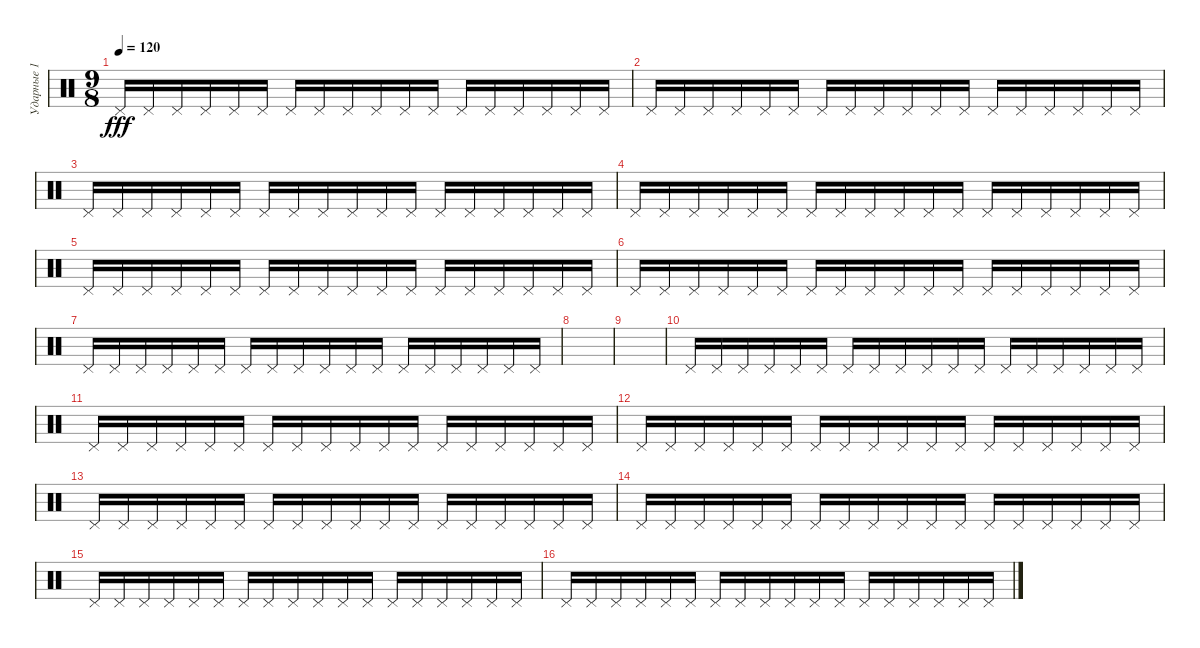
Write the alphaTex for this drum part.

\track ("Ударные 1" "Ударные 1") {instrument percussion}
\staff {score}
\articulation defaults
\ts (9 8)
\tempo 120
\clef neutral
\ks c "Pedal Hi-Hat (hit)".16{dy fff} "Pedal Hi-Hat (hit)".16 "Pedal Hi-Hat (hit)".16 "Pedal Hi-Hat (hit)".16 "Pedal Hi-Hat (hit)".16 "Pedal Hi-Hat (hit)".16 "Pedal Hi-Hat (hit)".16 "Pedal Hi-Hat (hit)".16 "Pedal Hi-Hat (hit)".16 "Pedal Hi-Hat (hit)".16 "Pedal Hi-Hat (hit)".16 "Pedal Hi-Hat (hit)".16 "Pedal Hi-Hat (hit)".16 "Pedal Hi-Hat (hit)".16 "Pedal Hi-Hat (hit)".16 "Pedal Hi-Hat (hit)".16 "Pedal Hi-Hat (hit)".16 "Pedal Hi-Hat (hit)".16
|
"Pedal Hi-Hat (hit)".16 "Pedal Hi-Hat (hit)".16 "Pedal Hi-Hat (hit)".16 "Pedal Hi-Hat (hit)".16 "Pedal Hi-Hat (hit)".16 "Pedal Hi-Hat (hit)".16 "Pedal Hi-Hat (hit)".16 "Pedal Hi-Hat (hit)".16 "Pedal Hi-Hat (hit)".16 "Pedal Hi-Hat (hit)".16 "Pedal Hi-Hat (hit)".16 "Pedal Hi-Hat (hit)".16 "Pedal Hi-Hat (hit)".16 "Pedal Hi-Hat (hit)".16 "Pedal Hi-Hat (hit)".16 "Pedal Hi-Hat (hit)".16 "Pedal Hi-Hat (hit)".16 "Pedal Hi-Hat (hit)".16 |
"Pedal Hi-Hat (hit)".16 "Pedal Hi-Hat (hit)".16 "Pedal Hi-Hat (hit)".16 "Pedal Hi-Hat (hit)".16 "Pedal Hi-Hat (hit)".16 "Pedal Hi-Hat (hit)".16 "Pedal Hi-Hat (hit)".16 "Pedal Hi-Hat (hit)".16 "Pedal Hi-Hat (hit)".16 "Pedal Hi-Hat (hit)".16 "Pedal Hi-Hat (hit)".16 "Pedal Hi-Hat (hit)".16 "Pedal Hi-Hat (hit)".16 "Pedal Hi-Hat (hit)".16 "Pedal Hi-Hat (hit)".16 "Pedal Hi-Hat (hit)".16 "Pedal Hi-Hat (hit)".16 "Pedal Hi-Hat (hit)".16 |
"Pedal Hi-Hat (hit)".16 "Pedal Hi-Hat (hit)".16 "Pedal Hi-Hat (hit)".16 "Pedal Hi-Hat (hit)".16 "Pedal Hi-Hat (hit)".16 "Pedal Hi-Hat (hit)".16 "Pedal Hi-Hat (hit)".16 "Pedal Hi-Hat (hit)".16 "Pedal Hi-Hat (hit)".16 "Pedal Hi-Hat (hit)".16 "Pedal Hi-Hat (hit)".16 "Pedal Hi-Hat (hit)".16 "Pedal Hi-Hat (hit)".16 "Pedal Hi-Hat (hit)".16 "Pedal Hi-Hat (hit)".16 "Pedal Hi-Hat (hit)".16 "Pedal Hi-Hat (hit)".16 "Pedal Hi-Hat (hit)".16 |
"Pedal Hi-Hat (hit)".16 "Pedal Hi-Hat (hit)".16 "Pedal Hi-Hat (hit)".16 "Pedal Hi-Hat (hit)".16 "Pedal Hi-Hat (hit)".16 "Pedal Hi-Hat (hit)".16 "Pedal Hi-Hat (hit)".16 "Pedal Hi-Hat (hit)".16 "Pedal Hi-Hat (hit)".16 "Pedal Hi-Hat (hit)".16 "Pedal Hi-Hat (hit)".16 "Pedal Hi-Hat (hit)".16 "Pedal Hi-Hat (hit)".16 "Pedal Hi-Hat (hit)".16 "Pedal Hi-Hat (hit)".16 "Pedal Hi-Hat (hit)".16 "Pedal Hi-Hat (hit)".16 "Pedal Hi-Hat (hit)".16 |
"Pedal Hi-Hat (hit)".16 "Pedal Hi-Hat (hit)".16 "Pedal Hi-Hat (hit)".16 "Pedal Hi-Hat (hit)".16 "Pedal Hi-Hat (hit)".16 "Pedal Hi-Hat (hit)".16 "Pedal Hi-Hat (hit)".16 "Pedal Hi-Hat (hit)".16 "Pedal Hi-Hat (hit)".16 "Pedal Hi-Hat (hit)".16 "Pedal Hi-Hat (hit)".16 "Pedal Hi-Hat (hit)".16 "Pedal Hi-Hat (hit)".16 "Pedal Hi-Hat (hit)".16 "Pedal Hi-Hat (hit)".16 "Pedal Hi-Hat (hit)".16 "Pedal Hi-Hat (hit)".16 "Pedal Hi-Hat (hit)".16 |
"Pedal Hi-Hat (hit)".16 "Pedal Hi-Hat (hit)".16 "Pedal Hi-Hat (hit)".16 "Pedal Hi-Hat (hit)".16 "Pedal Hi-Hat (hit)".16 "Pedal Hi-Hat (hit)".16 "Pedal Hi-Hat (hit)".16 "Pedal Hi-Hat (hit)".16 "Pedal Hi-Hat (hit)".16 "Pedal Hi-Hat (hit)".16 "Pedal Hi-Hat (hit)".16 "Pedal Hi-Hat (hit)".16 "Pedal Hi-Hat (hit)".16 "Pedal Hi-Hat (hit)".16 "Pedal Hi-Hat (hit)".16 "Pedal Hi-Hat (hit)".16 "Pedal Hi-Hat (hit)".16 "Pedal Hi-Hat (hit)".16 |
|
|
"Pedal Hi-Hat (hit)".16 "Pedal Hi-Hat (hit)".16 "Pedal Hi-Hat (hit)".16 "Pedal Hi-Hat (hit)".16 "Pedal Hi-Hat (hit)".16 "Pedal Hi-Hat (hit)".16 "Pedal Hi-Hat (hit)".16 "Pedal Hi-Hat (hit)".16 "Pedal Hi-Hat (hit)".16 "Pedal Hi-Hat (hit)".16 "Pedal Hi-Hat (hit)".16 "Pedal Hi-Hat (hit)".16 "Pedal Hi-Hat (hit)".16 "Pedal Hi-Hat (hit)".16 "Pedal Hi-Hat (hit)".16 "Pedal Hi-Hat (hit)".16 "Pedal Hi-Hat (hit)".16 "Pedal Hi-Hat (hit)".16 |
"Pedal Hi-Hat (hit)".16 "Pedal Hi-Hat (hit)".16 "Pedal Hi-Hat (hit)".16 "Pedal Hi-Hat (hit)".16 "Pedal Hi-Hat (hit)".16 "Pedal Hi-Hat (hit)".16 "Pedal Hi-Hat (hit)".16 "Pedal Hi-Hat (hit)".16 "Pedal Hi-Hat (hit)".16 "Pedal Hi-Hat (hit)".16 "Pedal Hi-Hat (hit)".16 "Pedal Hi-Hat (hit)".16 "Pedal Hi-Hat (hit)".16 "Pedal Hi-Hat (hit)".16 "Pedal Hi-Hat (hit)".16 "Pedal Hi-Hat (hit)".16 "Pedal Hi-Hat (hit)".16 "Pedal Hi-Hat (hit)".16 |
"Pedal Hi-Hat (hit)".16 "Pedal Hi-Hat (hit)".16 "Pedal Hi-Hat (hit)".16 "Pedal Hi-Hat (hit)".16 "Pedal Hi-Hat (hit)".16 "Pedal Hi-Hat (hit)".16 "Pedal Hi-Hat (hit)".16 "Pedal Hi-Hat (hit)".16 "Pedal Hi-Hat (hit)".16 "Pedal Hi-Hat (hit)".16 "Pedal Hi-Hat (hit)".16 "Pedal Hi-Hat (hit)".16 "Pedal Hi-Hat (hit)".16 "Pedal Hi-Hat (hit)".16 "Pedal Hi-Hat (hit)".16 "Pedal Hi-Hat (hit)".16 "Pedal Hi-Hat (hit)".16 "Pedal Hi-Hat (hit)".16 |
"Pedal Hi-Hat (hit)".16 "Pedal Hi-Hat (hit)".16 "Pedal Hi-Hat (hit)".16 "Pedal Hi-Hat (hit)".16 "Pedal Hi-Hat (hit)".16 "Pedal Hi-Hat (hit)".16 "Pedal Hi-Hat (hit)".16 "Pedal Hi-Hat (hit)".16 "Pedal Hi-Hat (hit)".16 "Pedal Hi-Hat (hit)".16 "Pedal Hi-Hat (hit)".16 "Pedal Hi-Hat (hit)".16 "Pedal Hi-Hat (hit)".16 "Pedal Hi-Hat (hit)".16 "Pedal Hi-Hat (hit)".16 "Pedal Hi-Hat (hit)".16 "Pedal Hi-Hat (hit)".16 "Pedal Hi-Hat (hit)".16 |
"Pedal Hi-Hat (hit)".16 "Pedal Hi-Hat (hit)".16 "Pedal Hi-Hat (hit)".16 "Pedal Hi-Hat (hit)".16 "Pedal Hi-Hat (hit)".16 "Pedal Hi-Hat (hit)".16 "Pedal Hi-Hat (hit)".16 "Pedal Hi-Hat (hit)".16 "Pedal Hi-Hat (hit)".16 "Pedal Hi-Hat (hit)".16 "Pedal Hi-Hat (hit)".16 "Pedal Hi-Hat (hit)".16 "Pedal Hi-Hat (hit)".16 "Pedal Hi-Hat (hit)".16 "Pedal Hi-Hat (hit)".16 "Pedal Hi-Hat (hit)".16 "Pedal Hi-Hat (hit)".16 "Pedal Hi-Hat (hit)".16 |
"Pedal Hi-Hat (hit)".16 "Pedal Hi-Hat (hit)".16 "Pedal Hi-Hat (hit)".16 "Pedal Hi-Hat (hit)".16 "Pedal Hi-Hat (hit)".16 "Pedal Hi-Hat (hit)".16 "Pedal Hi-Hat (hit)".16 "Pedal Hi-Hat (hit)".16 "Pedal Hi-Hat (hit)".16 "Pedal Hi-Hat (hit)".16 "Pedal Hi-Hat (hit)".16 "Pedal Hi-Hat (hit)".16 "Pedal Hi-Hat (hit)".16 "Pedal Hi-Hat (hit)".16 "Pedal Hi-Hat (hit)".16 "Pedal Hi-Hat (hit)".16 "Pedal Hi-Hat (hit)".16 "Pedal Hi-Hat (hit)".16 |
"Pedal Hi-Hat (hit)".16 "Pedal Hi-Hat (hit)".16 "Pedal Hi-Hat (hit)".16 "Pedal Hi-Hat (hit)".16 "Pedal Hi-Hat (hit)".16 "Pedal Hi-Hat (hit)".16 "Pedal Hi-Hat (hit)".16 "Pedal Hi-Hat (hit)".16 "Pedal Hi-Hat (hit)".16 "Pedal Hi-Hat (hit)".16 "Pedal Hi-Hat (hit)".16 "Pedal Hi-Hat (hit)".16 "Pedal Hi-Hat (hit)".16 "Pedal Hi-Hat (hit)".16 "Pedal Hi-Hat (hit)".16 "Pedal Hi-Hat (hit)".16 "Pedal Hi-Hat (hit)".16 "Pedal Hi-Hat (hit)".16
